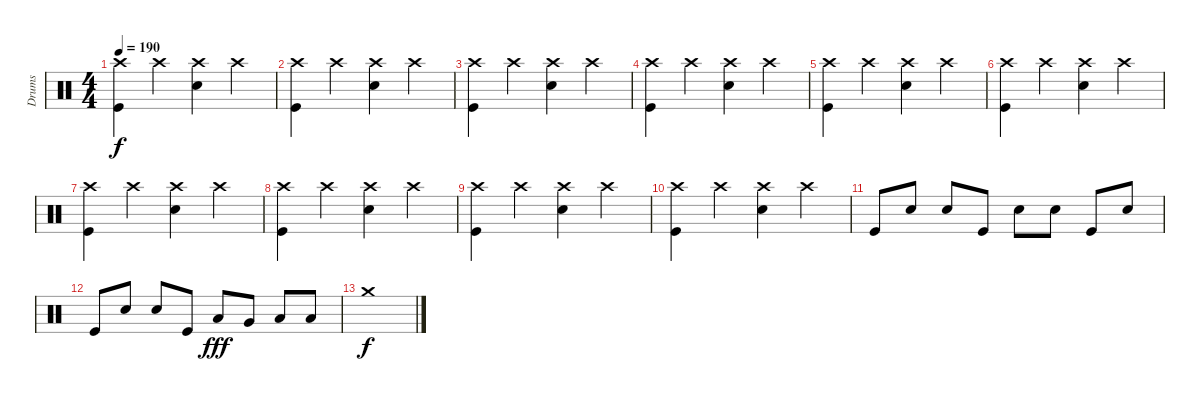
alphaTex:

\track ("Drums" "Drums") {instrument percussion}
\staff {score}
\articulation defaults
\ts (4 4)
\tempo 190
\clef neutral
\ks c
("Crash high (hit)" "Kick (hit)").4{dy f} "Crash high (hit)".4 ("Crash high (hit)" "Electric Snare (hit)").4 "Crash high (hit)".4 |
("Crash high (hit)" "Kick (hit)").4 "Crash high (hit)".4 ("Crash high (hit)" "Electric Snare (hit)").4 "Crash high (hit)".4 |
("Crash high (hit)" "Kick (hit)").4 "Crash high (hit)".4 ("Crash high (hit)" "Electric Snare (hit)").4 "Crash high (hit)".4 |
("Crash high (hit)" "Kick (hit)").4 "Crash high (hit)".4 ("Crash high (hit)" "Electric Snare (hit)").4 "Crash high (hit)".4 |
("Crash high (hit)" "Kick (hit)").4 "Crash high (hit)".4 ("Crash high (hit)" "Electric Snare (hit)").4 "Crash high (hit)".4 |
("Crash high (hit)" "Kick (hit)").4 "Crash high (hit)".4 ("Crash high (hit)" "Electric Snare (hit)").4 "Crash high (hit)".4 |
("Crash high (hit)" "Kick (hit)").4 "Crash high (hit)".4 ("Crash high (hit)" "Electric Snare (hit)").4 "Crash high (hit)".4 |
("Crash high (hit)" "Kick (hit)").4 "Crash high (hit)".4 ("Crash high (hit)" "Electric Snare (hit)").4 "Crash high (hit)".4 |
("Crash high (hit)" "Kick (hit)").4 "Crash high (hit)".4 ("Crash high (hit)" "Electric Snare (hit)").4 "Crash high (hit)".4 |
("Crash high (hit)" "Kick (hit)").4 "Crash high (hit)".4 ("Crash high (hit)" "Electric Snare (hit)").4 "Crash high (hit)".4 |
"Kick (hit)".8 "Electric Snare (hit)".8 "Electric Snare (hit)".8 "Kick (hit)".8 "Electric Snare (hit)".8 "Electric Snare (hit)".8 "Kick (hit)".8 "Electric Snare (hit)".8 |
"Kick (hit)".8 "Electric Snare (hit)".8 "Electric Snare (hit)".8 "Kick (hit)".8 "Low Tom (hit)".8{dy fff} "Very Low Tom (hit)".8 "Low Floor Tom (hit)".8 "Low Floor Tom (hit)".8 |
"Crash medium (hit)".1{dy f}
